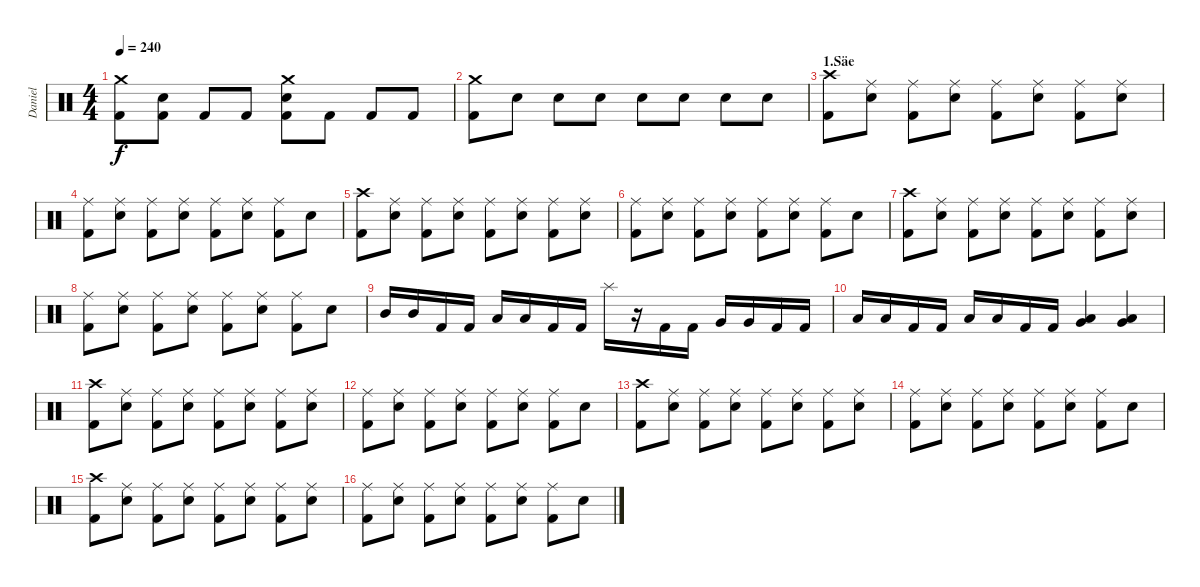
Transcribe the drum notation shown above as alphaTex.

\track ("Daniel" "Daniel") {instrument percussion}
\staff {score}
\articulation defaults
\ts (4 4)
\tempo 240
\clef neutral
\ks c
("Crash medium (hit)" "Kick (hit) 2").8{dy f} ("Electric Snare (hit)" "Kick (hit) 2").8 "Kick (hit) 2".8 "Kick (hit) 2".8 ("Crash medium (hit)" "Electric Snare (hit)" "Kick (hit) 2").8 "Kick (hit) 2".8 "Kick (hit) 2".8 "Kick (hit) 2".8 |
("Crash medium (hit)" "Kick (hit) 2").8 "Electric Snare (hit)".8 "Electric Snare (hit)".8 "Electric Snare (hit)".8 "Electric Snare (hit)".8 "Electric Snare (hit)".8 "Electric Snare (hit)".8 "Electric Snare (hit)".8 |
\section ("" "1.Säe")
("Crash high (hit)" "Kick (hit) 2").8 ("Ride (middle)" "Electric Snare (hit)").8 ("Ride (middle)" "Kick (hit) 2").8 ("Ride (middle)" "Electric Snare (hit)").8 ("Ride (middle)" "Kick (hit) 2").8 ("Ride (middle)" "Electric Snare (hit)").8 ("Ride (middle)" "Kick (hit) 2").8 ("Ride (middle)" "Electric Snare (hit)").8 |
("Ride (middle)" "Kick (hit) 2").8 ("Ride (middle)" "Electric Snare (hit)").8 ("Ride (middle)" "Kick (hit) 2").8 ("Ride (middle)" "Electric Snare (hit)").8 ("Ride (middle)" "Kick (hit) 2").8 ("Ride (middle)" "Electric Snare (hit)").8 ("Ride (middle)" "Kick (hit) 2").8 "Electric Snare (hit)".8 |
("Crash high (hit)" "Kick (hit) 2").8 ("Ride (middle)" "Electric Snare (hit)").8 ("Ride (middle)" "Kick (hit) 2").8 ("Ride (middle)" "Electric Snare (hit)").8 ("Ride (middle)" "Kick (hit) 2").8 ("Ride (middle)" "Electric Snare (hit)").8 ("Ride (middle)" "Kick (hit) 2").8 ("Ride (middle)" "Electric Snare (hit)").8 |
("Ride (middle)" "Kick (hit) 2").8 ("Ride (middle)" "Electric Snare (hit)").8 ("Ride (middle)" "Kick (hit) 2").8 ("Ride (middle)" "Electric Snare (hit)").8 ("Ride (middle)" "Kick (hit) 2").8 ("Ride (middle)" "Electric Snare (hit)").8 ("Ride (middle)" "Kick (hit) 2").8 "Electric Snare (hit)".8 |
("Crash high (hit)" "Kick (hit) 2").8 ("Ride (middle)" "Electric Snare (hit)").8 ("Ride (middle)" "Kick (hit) 2").8 ("Ride (middle)" "Electric Snare (hit)").8 ("Ride (middle)" "Kick (hit) 2").8 ("Ride (middle)" "Electric Snare (hit)").8 ("Ride (middle)" "Kick (hit) 2").8 ("Ride (middle)" "Electric Snare (hit)").8 |
("Ride (middle)" "Kick (hit) 2").8 ("Ride (middle)" "Electric Snare (hit)").8 ("Ride (middle)" "Kick (hit) 2").8 ("Ride (middle)" "Electric Snare (hit)").8 ("Ride (middle)" "Kick (hit) 2").8 ("Ride (middle)" "Electric Snare (hit)").8 ("Ride (middle)" "Kick (hit) 2").8 "Electric Snare (hit)".8 |
"Mid Tom (hit)".16 "Mid Tom (hit)".16 "Kick (hit) 2".16 "Kick (hit) 2".16 "Low Tom (hit)".16 "Low Tom (hit)".16 "Kick (hit) 2".16 "Kick (hit) 2".16 "Splash (hit)".16 r.16 "Kick (hit) 2".16 "Kick (hit) 2".16 "Very Low Tom (hit)".16 "Very Low Tom (hit)".16 "Kick (hit) 2".16 "Kick (hit) 2".16 |
"Low Tom (hit)".16 "Low Tom (hit)".16 "Kick (hit) 2".16 "Kick (hit) 2".16 "Low Floor Tom (hit)".16 "Low Floor Tom (hit)".16 "Kick (hit) 2".16 "Kick (hit) 2".16 ("Low Floor Tom (hit)" "Very Low Tom (hit)").4 ("Low Floor Tom (hit)" "Very Low Tom (hit)").4 |
("Crash high (hit)" "Kick (hit) 2").8 ("Ride (middle)" "Electric Snare (hit)").8 ("Ride (middle)" "Kick (hit) 2").8 ("Ride (middle)" "Electric Snare (hit)").8 ("Ride (middle)" "Kick (hit) 2").8 ("Ride (middle)" "Electric Snare (hit)").8 ("Ride (middle)" "Kick (hit) 2").8 ("Ride (middle)" "Electric Snare (hit)").8 |
("Ride (middle)" "Kick (hit) 2").8 ("Ride (middle)" "Electric Snare (hit)").8 ("Ride (middle)" "Kick (hit) 2").8 ("Ride (middle)" "Electric Snare (hit)").8 ("Ride (middle)" "Kick (hit) 2").8 ("Ride (middle)" "Electric Snare (hit)").8 ("Ride (middle)" "Kick (hit) 2").8 "Electric Snare (hit)".8 |
("Crash high (hit)" "Kick (hit) 2").8 ("Ride (middle)" "Electric Snare (hit)").8 ("Ride (middle)" "Kick (hit) 2").8 ("Ride (middle)" "Electric Snare (hit)").8 ("Ride (middle)" "Kick (hit) 2").8 ("Ride (middle)" "Electric Snare (hit)").8 ("Ride (middle)" "Kick (hit) 2").8 ("Ride (middle)" "Electric Snare (hit)").8 |
("Ride (middle)" "Kick (hit) 2").8 ("Ride (middle)" "Electric Snare (hit)").8 ("Ride (middle)" "Kick (hit) 2").8 ("Ride (middle)" "Electric Snare (hit)").8 ("Ride (middle)" "Kick (hit) 2").8 ("Ride (middle)" "Electric Snare (hit)").8 ("Ride (middle)" "Kick (hit) 2").8 "Electric Snare (hit)".8 |
("Crash high (hit)" "Kick (hit) 2").8 ("Ride (middle)" "Electric Snare (hit)").8 ("Ride (middle)" "Kick (hit) 2").8 ("Ride (middle)" "Electric Snare (hit)").8 ("Ride (middle)" "Kick (hit) 2").8 ("Ride (middle)" "Electric Snare (hit)").8 ("Ride (middle)" "Kick (hit) 2").8 ("Ride (middle)" "Electric Snare (hit)").8 |
("Ride (middle)" "Kick (hit) 2").8 ("Ride (middle)" "Electric Snare (hit)").8 ("Ride (middle)" "Kick (hit) 2").8 ("Ride (middle)" "Electric Snare (hit)").8 ("Ride (middle)" "Kick (hit) 2").8 ("Ride (middle)" "Electric Snare (hit)").8 ("Ride (middle)" "Kick (hit) 2").8 "Electric Snare (hit)".8
